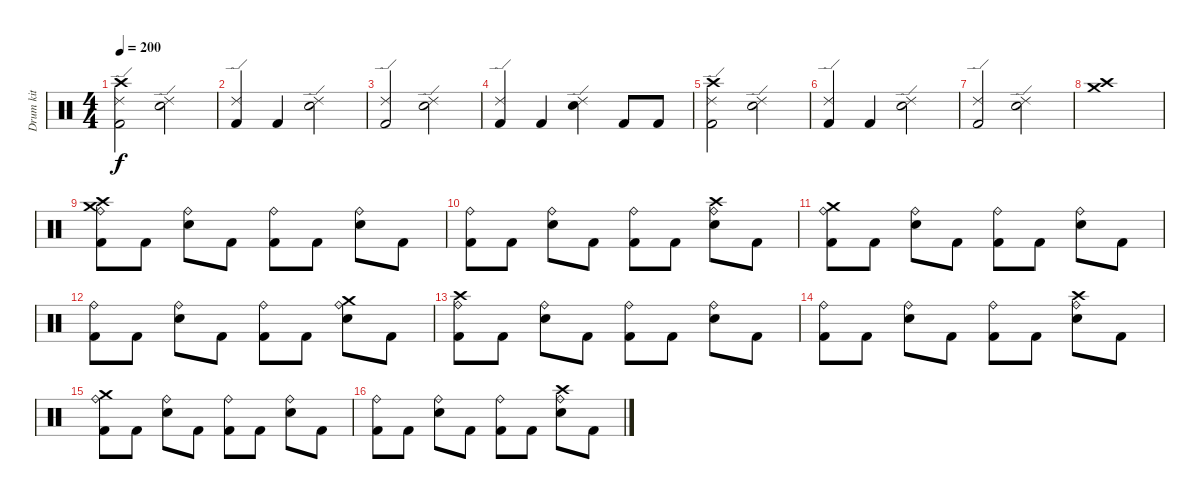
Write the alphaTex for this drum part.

\track ("Drum kit" "Drum kit") {instrument percussion}
\staff {score}
\articulation defaults
\ts (4 4)
\tempo 200
\clef neutral
\ks c
("Crash high (hit)" "Kick (hit) 2" "Ride (edge) 2").2{dy f} ("Electric Snare (hit)" "Ride (edge) 2").2 |
("Kick (hit) 2" "Ride (edge) 2").4 "Kick (hit) 2".4 ("Electric Snare (hit)" "Ride (edge) 2").2 |
("Kick (hit) 2" "Ride (edge) 2").2 ("Electric Snare (hit)" "Ride (edge) 2").2 |
("Kick (hit) 2" "Ride (edge) 2").4 "Kick (hit) 2".4 ("Electric Snare (hit)" "Ride (edge) 2").4 "Kick (hit) 2".8 "Kick (hit) 2".8 |
("Crash high (hit)" "Kick (hit) 2" "Ride (edge) 2").2 ("Electric Snare (hit)" "Ride (edge) 2").2 |
("Kick (hit) 2" "Ride (edge) 2").4 "Kick (hit) 2".4 ("Electric Snare (hit)" "Ride (edge) 2").2 |
("Kick (hit) 2" "Ride (edge) 2").2 ("Electric Snare (hit)" "Ride (edge) 2").2 |
("Crash medium (hit)" "Crash high (hit)").1 |
("Crash medium (hit)" "Crash high (hit)" "Kick (hit) 2" "Ride (bell)").8 "Kick (hit) 2".8 ("Electric Snare (hit)" "Ride (bell)").8 "Kick (hit) 2".8 ("Kick (hit) 2" "Ride (bell)").8 "Kick (hit) 2".8 ("Electric Snare (hit)" "Ride (bell)").8 "Kick (hit) 2".8 |
("Kick (hit) 2" "Ride (bell)").8 "Kick (hit) 2".8 ("Electric Snare (hit)" "Ride (bell)").8 "Kick (hit) 2".8 ("Kick (hit) 2" "Ride (bell)").8 "Kick (hit) 2".8 ("Crash high (hit)" "Electric Snare (hit)" "Ride (bell)").8 "Kick (hit) 2".8 |
("Crash medium (hit)" "Kick (hit) 2" "Ride (bell)").8 "Kick (hit) 2".8 ("Electric Snare (hit)" "Ride (bell)").8 "Kick (hit) 2".8 ("Kick (hit) 2" "Ride (bell)").8 "Kick (hit) 2".8 ("Electric Snare (hit)" "Ride (bell)").8 "Kick (hit) 2".8 |
("Kick (hit) 2" "Ride (bell)").8 "Kick (hit) 2".8 ("Electric Snare (hit)" "Ride (bell)").8 "Kick (hit) 2".8 ("Kick (hit) 2" "Ride (bell)").8 "Kick (hit) 2".8 ("Crash medium (hit)" "Electric Snare (hit)" "Ride (bell)").8 "Kick (hit) 2".8 |
("Crash high (hit)" "Kick (hit) 2" "Ride (bell)").8 "Kick (hit) 2".8 ("Electric Snare (hit)" "Ride (bell)").8 "Kick (hit) 2".8 ("Kick (hit) 2" "Ride (bell)").8 "Kick (hit) 2".8 ("Electric Snare (hit)" "Ride (bell)").8 "Kick (hit) 2".8 |
("Kick (hit) 2" "Ride (bell)").8 "Kick (hit) 2".8 ("Electric Snare (hit)" "Ride (bell)").8 "Kick (hit) 2".8 ("Kick (hit) 2" "Ride (bell)").8 "Kick (hit) 2".8 ("Crash high (hit)" "Electric Snare (hit)" "Ride (bell)").8 "Kick (hit) 2".8 |
("Crash medium (hit)" "Kick (hit) 2" "Ride (bell)").8 "Kick (hit) 2".8 ("Electric Snare (hit)" "Ride (bell)").8 "Kick (hit) 2".8 ("Kick (hit) 2" "Ride (bell)").8 "Kick (hit) 2".8 ("Electric Snare (hit)" "Ride (bell)").8 "Kick (hit) 2".8 |
("Kick (hit) 2" "Ride (bell)").8 "Kick (hit) 2".8 ("Electric Snare (hit)" "Ride (bell)").8 "Kick (hit) 2".8 ("Kick (hit) 2" "Ride (bell)").8 "Kick (hit) 2".8 ("Crash high (hit)" "Electric Snare (hit)" "Ride (bell)").8 "Kick (hit) 2".8
